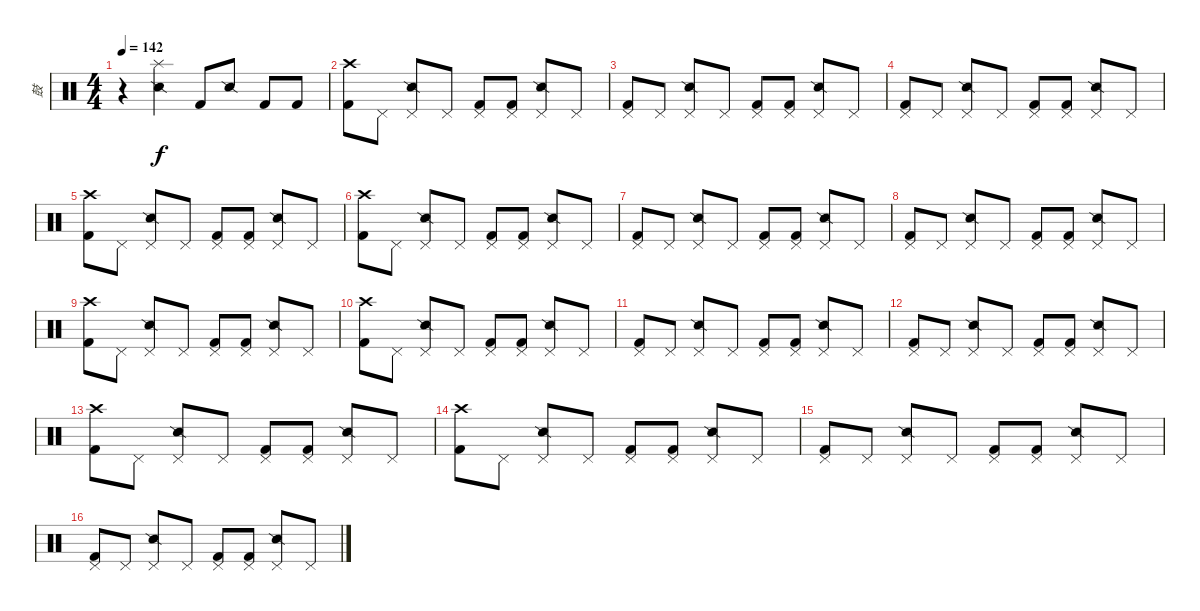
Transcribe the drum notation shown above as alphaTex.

\track ("鼓" "鼓") {instrument percussion}
\staff {score}
\articulation defaults
\ts (4 4)
\tempo 142
\clef neutral
\ks c
r.4{dy f} ("Snare (side stick) 2" "Splash (hit)").4 "Kick (hit) 2".8 "Snare (side stick) 2".8 "Kick (hit) 2".8 "Kick (hit) 2".8 |
("Crash high (hit)" "Kick (hit) 2").8 "Pedal Hi-Hat (hit)".8 ("Pedal Hi-Hat (hit)" "Snare (side stick) 2").8 "Pedal Hi-Hat (hit)".8 ("Pedal Hi-Hat (hit)" "Kick (hit) 2").8 ("Pedal Hi-Hat (hit)" "Kick (hit) 2").8 ("Pedal Hi-Hat (hit)" "Snare (side stick) 2").8 "Pedal Hi-Hat (hit)".8 |
("Pedal Hi-Hat (hit)" "Kick (hit) 2").8 "Pedal Hi-Hat (hit)".8 ("Pedal Hi-Hat (hit)" "Snare (side stick) 2").8 "Pedal Hi-Hat (hit)".8 ("Pedal Hi-Hat (hit)" "Kick (hit) 2").8 ("Pedal Hi-Hat (hit)" "Kick (hit) 2").8 ("Pedal Hi-Hat (hit)" "Snare (side stick) 2").8 "Pedal Hi-Hat (hit)".8 |
("Pedal Hi-Hat (hit)" "Kick (hit) 2").8 "Pedal Hi-Hat (hit)".8 ("Pedal Hi-Hat (hit)" "Snare (side stick) 2").8 "Pedal Hi-Hat (hit)".8 ("Pedal Hi-Hat (hit)" "Kick (hit) 2").8 ("Pedal Hi-Hat (hit)" "Kick (hit) 2").8 ("Pedal Hi-Hat (hit)" "Snare (side stick) 2").8 "Pedal Hi-Hat (hit)".8 |
("Crash high (hit)" "Kick (hit) 2").8 "Pedal Hi-Hat (hit)".8 ("Pedal Hi-Hat (hit)" "Snare (side stick) 2").8 "Pedal Hi-Hat (hit)".8 ("Pedal Hi-Hat (hit)" "Kick (hit) 2").8 ("Pedal Hi-Hat (hit)" "Kick (hit) 2").8 ("Pedal Hi-Hat (hit)" "Snare (side stick) 2").8 "Pedal Hi-Hat (hit)".8 |
("Crash high (hit)" "Kick (hit) 2").8 "Pedal Hi-Hat (hit)".8 ("Pedal Hi-Hat (hit)" "Snare (side stick) 2").8 "Pedal Hi-Hat (hit)".8 ("Pedal Hi-Hat (hit)" "Kick (hit) 2").8 ("Pedal Hi-Hat (hit)" "Kick (hit) 2").8 ("Pedal Hi-Hat (hit)" "Snare (side stick) 2").8 "Pedal Hi-Hat (hit)".8 |
("Pedal Hi-Hat (hit)" "Kick (hit) 2").8 "Pedal Hi-Hat (hit)".8 ("Pedal Hi-Hat (hit)" "Snare (side stick) 2").8 "Pedal Hi-Hat (hit)".8 ("Pedal Hi-Hat (hit)" "Kick (hit) 2").8 ("Pedal Hi-Hat (hit)" "Kick (hit) 2").8 ("Pedal Hi-Hat (hit)" "Snare (side stick) 2").8 "Pedal Hi-Hat (hit)".8 |
("Pedal Hi-Hat (hit)" "Kick (hit) 2").8 "Pedal Hi-Hat (hit)".8 ("Pedal Hi-Hat (hit)" "Snare (side stick) 2").8 "Pedal Hi-Hat (hit)".8 ("Pedal Hi-Hat (hit)" "Kick (hit) 2").8 ("Pedal Hi-Hat (hit)" "Kick (hit) 2").8 ("Pedal Hi-Hat (hit)" "Snare (side stick) 2").8 "Pedal Hi-Hat (hit)".8 |
("Crash high (hit)" "Kick (hit) 2").8 "Pedal Hi-Hat (hit)".8 ("Pedal Hi-Hat (hit)" "Snare (side stick) 2").8 "Pedal Hi-Hat (hit)".8 ("Pedal Hi-Hat (hit)" "Kick (hit) 2").8 ("Pedal Hi-Hat (hit)" "Kick (hit) 2").8 ("Pedal Hi-Hat (hit)" "Snare (side stick) 2").8 "Pedal Hi-Hat (hit)".8 |
("Crash high (hit)" "Kick (hit) 2").8 "Pedal Hi-Hat (hit)".8 ("Pedal Hi-Hat (hit)" "Snare (side stick) 2").8 "Pedal Hi-Hat (hit)".8 ("Pedal Hi-Hat (hit)" "Kick (hit) 2").8 ("Pedal Hi-Hat (hit)" "Kick (hit) 2").8 ("Pedal Hi-Hat (hit)" "Snare (side stick) 2").8 "Pedal Hi-Hat (hit)".8 |
("Pedal Hi-Hat (hit)" "Kick (hit) 2").8 "Pedal Hi-Hat (hit)".8 ("Pedal Hi-Hat (hit)" "Snare (side stick) 2").8 "Pedal Hi-Hat (hit)".8 ("Pedal Hi-Hat (hit)" "Kick (hit) 2").8 ("Pedal Hi-Hat (hit)" "Kick (hit) 2").8 ("Pedal Hi-Hat (hit)" "Snare (side stick) 2").8 "Pedal Hi-Hat (hit)".8 |
("Pedal Hi-Hat (hit)" "Kick (hit) 2").8 "Pedal Hi-Hat (hit)".8 ("Pedal Hi-Hat (hit)" "Snare (side stick) 2").8 "Pedal Hi-Hat (hit)".8 ("Pedal Hi-Hat (hit)" "Kick (hit) 2").8 ("Pedal Hi-Hat (hit)" "Kick (hit) 2").8 ("Pedal Hi-Hat (hit)" "Snare (side stick) 2").8 "Pedal Hi-Hat (hit)".8 |
("Crash high (hit)" "Kick (hit) 2").8 "Pedal Hi-Hat (hit)".8 ("Pedal Hi-Hat (hit)" "Snare (side stick) 2").8 "Pedal Hi-Hat (hit)".8 ("Pedal Hi-Hat (hit)" "Kick (hit) 2").8 ("Pedal Hi-Hat (hit)" "Kick (hit) 2").8 ("Pedal Hi-Hat (hit)" "Snare (side stick) 2").8 "Pedal Hi-Hat (hit)".8 |
("Crash high (hit)" "Kick (hit) 2").8 "Pedal Hi-Hat (hit)".8 ("Pedal Hi-Hat (hit)" "Snare (side stick) 2").8 "Pedal Hi-Hat (hit)".8 ("Pedal Hi-Hat (hit)" "Kick (hit) 2").8 ("Pedal Hi-Hat (hit)" "Kick (hit) 2").8 ("Pedal Hi-Hat (hit)" "Snare (side stick) 2").8 "Pedal Hi-Hat (hit)".8 |
("Pedal Hi-Hat (hit)" "Kick (hit) 2").8 "Pedal Hi-Hat (hit)".8 ("Pedal Hi-Hat (hit)" "Snare (side stick) 2").8 "Pedal Hi-Hat (hit)".8 ("Pedal Hi-Hat (hit)" "Kick (hit) 2").8 ("Pedal Hi-Hat (hit)" "Kick (hit) 2").8 ("Pedal Hi-Hat (hit)" "Snare (side stick) 2").8 "Pedal Hi-Hat (hit)".8 |
("Pedal Hi-Hat (hit)" "Kick (hit) 2").8 "Pedal Hi-Hat (hit)".8 ("Pedal Hi-Hat (hit)" "Snare (side stick) 2").8 "Pedal Hi-Hat (hit)".8 ("Pedal Hi-Hat (hit)" "Kick (hit) 2").8 ("Pedal Hi-Hat (hit)" "Kick (hit) 2").8 ("Pedal Hi-Hat (hit)" "Snare (side stick) 2").8 "Pedal Hi-Hat (hit)".8
